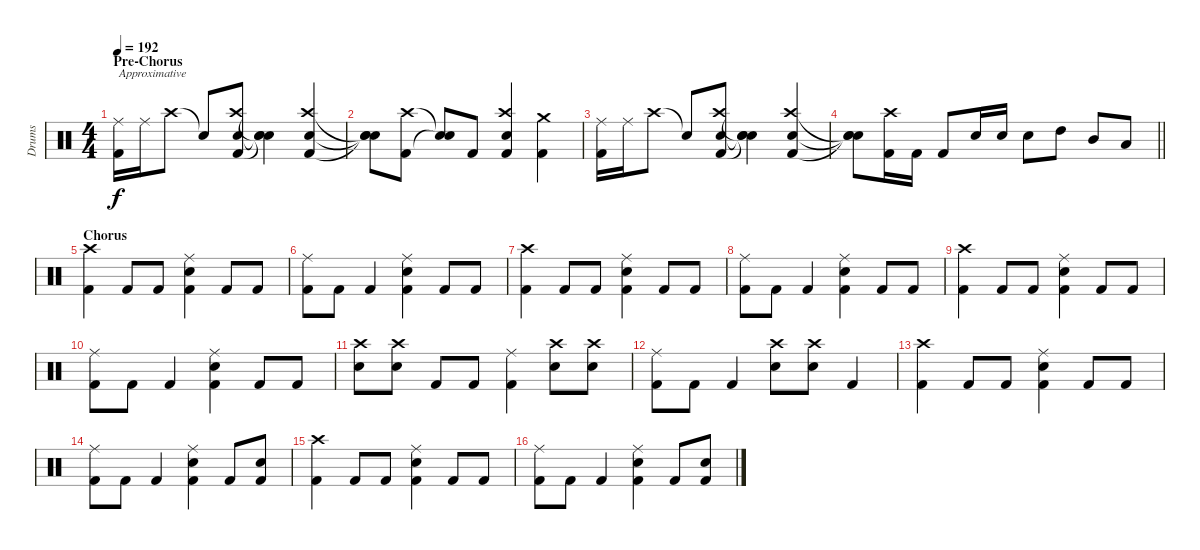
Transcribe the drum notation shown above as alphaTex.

\track ("Drums" "Drums") {instrument percussion}
\staff {score}
\articulation defaults
\ts (4 4)
\section ("" "Pre-Chorus")
\tempo 192
\clef neutral
\ks c
("Ride (middle)" "Kick (hit) 2").16{txt "Approximative " dy f} "Ride (middle)".16 "Crash high (hit)".8 "Snare (hit)"{t}.8 ("Crash high (hit)" "Snare (hit) 2" "Kick (hit) 2").8 ("Snare (hit)"{t} "Snare (hit)"{t} "Snare (hit)"{t}).4 ("Crash high (hit)" "Snare (hit) 2" "Kick (hit) 2").4 |
("Snare (hit)"{t} "Snare (hit)"{t} "Snare (hit)"{t}).8 ("Crash high (hit)" "Kick (hit) 2").8 ("Snare (hit)"{t} "Snare (hit)"{t}).8 "Kick (hit) 2".8 ("Crash high (hit)" "Snare (hit) 2" "Kick (hit) 2").4 ("Crash medium (hit)" "Kick (hit) 2").4 |
("Ride (middle)" "Kick (hit) 2").16 "Ride (middle)".16 "Crash high (hit)".8 "Snare (hit)"{t}.8 ("Crash high (hit)" "Snare (hit) 2" "Kick (hit) 2").8 ("Snare (hit)"{t} "Snare (hit)"{t} "Snare (hit)"{t}).4 ("Crash high (hit)" "Snare (hit) 2" "Kick (hit) 2").4 |
\barLineRight lightlight
("Snare (hit)"{t} "Snare (hit)"{t} "Snare (hit)"{t}).8 ("Crash high (hit)" "Kick (hit) 2").16 "Kick (hit) 2".16 "Kick (hit) 2".8 "Snare (hit) 2".16 "Snare (hit) 2".16 "Snare (hit) 2".8 "High Tom (hit)".8 "Mid Tom (hit)".8 "Low Tom (hit)".8 |
\section ("" "Chorus")
("Crash high (hit)" "Kick (hit) 2").4 "Kick (hit) 2".8 "Kick (hit) 2".8 ("Ride (middle)" "Snare (hit) 2" "Kick (hit) 2").4 "Kick (hit) 2".8 "Kick (hit) 2".8 |
("Ride (middle)" "Kick (hit) 2").8 "Kick (hit) 2".8 "Kick (hit) 2".4 ("Ride (middle)" "Snare (hit) 2" "Kick (hit) 2").4 "Kick (hit) 2".8 "Kick (hit) 2".8 |
("Crash high (hit)" "Kick (hit) 2").4 "Kick (hit) 2".8 "Kick (hit) 2".8 ("Ride (middle)" "Snare (hit) 2" "Kick (hit) 2").4 "Kick (hit) 2".8 "Kick (hit) 2".8 |
("Ride (middle)" "Kick (hit) 2").8 "Kick (hit) 2".8 "Kick (hit) 2".4 ("Ride (middle)" "Snare (hit) 2" "Kick (hit) 2").4 "Kick (hit) 2".8 "Kick (hit) 2".8 |
("Crash high (hit)" "Kick (hit) 2").4 "Kick (hit) 2".8 "Kick (hit) 2".8 ("Ride (middle)" "Snare (hit) 2" "Kick (hit) 2").4 "Kick (hit) 2".8 "Kick (hit) 2".8 |
("Ride (middle)" "Kick (hit) 2").8 "Kick (hit) 2".8 "Kick (hit) 2".4 ("Ride (middle)" "Snare (hit) 2" "Kick (hit) 2").4 "Kick (hit) 2".8 "Kick (hit) 2".8 |
("Crash high (hit)" "Snare (hit) 2").8 ("Crash high (hit)" "Snare (hit) 2").8 "Kick (hit) 2".8 "Kick (hit) 2".8 ("Ride (middle)" "Kick (hit) 2").4 ("Crash high (hit)" "Snare (hit) 2").8 ("Crash high (hit)" "Snare (hit) 2").8 |
("Ride (middle)" "Kick (hit) 2").8 "Kick (hit) 2".8 "Kick (hit) 2".4 ("Crash high (hit)" "Snare (hit) 2").8 ("Crash high (hit)" "Snare (hit) 2").8 "Kick (hit) 2".4 |
("Crash high (hit)" "Kick (hit) 2").4 "Kick (hit) 2".8 "Kick (hit) 2".8 ("Ride (middle)" "Snare (hit) 2" "Kick (hit) 2").4 "Kick (hit) 2".8 "Kick (hit) 2".8 |
("Ride (middle)" "Kick (hit) 2").8 "Kick (hit) 2".8 "Kick (hit) 2".4 ("Ride (middle)" "Snare (hit) 2" "Kick (hit) 2").4 "Kick (hit) 2".8 ("Snare (hit) 2" "Kick (hit) 2").8 |
("Crash high (hit)" "Kick (hit) 2").4 "Kick (hit) 2".8 "Kick (hit) 2".8 ("Ride (middle)" "Snare (hit) 2" "Kick (hit) 2").4 "Kick (hit) 2".8 "Kick (hit) 2".8 |
("Ride (middle)" "Kick (hit) 2").8 "Kick (hit) 2".8 "Kick (hit) 2".4 ("Ride (middle)" "Snare (hit) 2" "Kick (hit) 2").4 "Kick (hit) 2".8 ("Snare (hit) 2" "Kick (hit) 2").8
